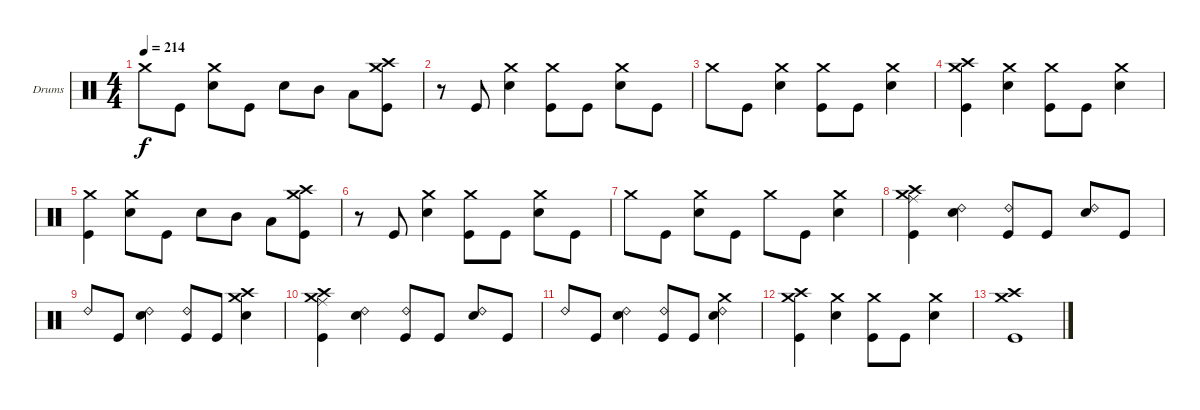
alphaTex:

\defaultSystemsLayout 4
\bracketExtendMode groupsimilarinstruments
\firstSystemTrackNameOrientation horizontal
\otherSystemsTrackNameOrientation horizontal
\track ("Brandon" "Drums") {instrument percussion}
\staff {score}
\articulation defaults
\ts (4 4)
\tempo 214
\clef neutral
\ks c "Crash medium (hit)".8{dy f} "Kick (hit)".8
("Snare (hit) 2" "Crash medium (hit)").8 "Kick (hit)".8 "Snare (hit) 2".8 "Mid Tom (hit)".8 "Low Tom (hit)".8 ("Crash medium (hit)" "Crash high (hit)" "Kick (hit)").8 |
r.8 "Kick (hit)".8 ("Snare (hit) 2" "Crash medium (hit)").4 ("Kick (hit)" "Crash medium (hit)").8 "Kick (hit)".8 ("Snare (hit) 2" "Crash medium (hit)").8 "Kick (hit)".8 |
"Crash medium (hit)".8 "Kick (hit)".8 ("Snare (hit) 2" "Crash medium (hit)").4 ("Kick (hit)" "Crash medium (hit)").8 "Kick (hit)".8 ("Snare (hit) 2" "Crash medium (hit)").4 |
("Kick (hit)" "Crash high (hit)" "Crash medium (hit)").4 ("Snare (hit) 2" "Crash medium (hit)").4 ("Kick (hit)" "Crash medium (hit)").8 "Kick (hit)".8 ("Snare (hit) 2" "Crash medium (hit)").4 |
("Kick (hit)" "Crash medium (hit)").4 ("Snare (hit) 2" "Crash medium (hit)").8 "Kick (hit)".8 "Snare (hit) 2".8 "Mid Tom (hit)".8 "Low Tom (hit)".8 ("Crash medium (hit)" "Crash high (hit)" "Kick (hit)").8 |
r.8 "Kick (hit)".8 ("Snare (hit) 2" "Crash medium (hit)").4 ("Kick (hit)" "Crash medium (hit)").8 "Kick (hit)".8 ("Snare (hit) 2" "Crash medium (hit)").8 "Kick (hit)".8 |
"Crash medium (hit)".8 "Kick (hit)".8 ("Snare (hit) 2" "Crash medium (hit)").8 "Kick (hit)".8 "Crash medium (hit)".8 "Kick (hit)".8 ("Snare (hit) 2" "Crash medium (hit)").4 |
("Kick (hit)" "Crash high (hit)" "Crash medium (hit)" "Ride (middle)").4 ("Snare (hit) 2" "Ride (bell) 2").4 ("Kick (hit)" "Ride (bell) 2").8 "Kick (hit)".8 ("Snare (hit) 2" "Ride (bell) 2").8 "Kick (hit)".8 |
"Ride (bell) 2".8 "Kick (hit)".8 ("Snare (hit) 2" "Ride (bell) 2").4 ("Kick (hit)" "Ride (bell) 2").8 "Kick (hit)".8 ("Snare (hit) 2" "Crash medium (hit)" "Crash high (hit)").4 |
("Kick (hit)" "Crash high (hit)" "Crash medium (hit)" "Ride (middle)").4 ("Snare (hit) 2" "Ride (bell) 2").4 ("Kick (hit)" "Ride (bell) 2").8 "Kick (hit)".8 ("Snare (hit) 2" "Ride (bell) 2").8 "Kick (hit)".8 |
"Ride (bell) 2".8 "Kick (hit)".8 ("Snare (hit) 2" "Ride (bell) 2").4 ("Kick (hit)" "Ride (bell) 2").8 "Kick (hit)".8 ("Snare (hit) 2" "Ride (bell) 2" "Crash medium (hit)").4 |
("Kick (hit)" "Crash high (hit)" "Crash medium (hit)").4 ("Snare (hit) 2" "Crash medium (hit)").4 ("Kick (hit)" "Crash medium (hit)").8 "Kick (hit)".8 ("Snare (hit) 2" "Crash medium (hit)").4 |
("Crash medium (hit)" "Crash high (hit)" "Kick (hit)").1
